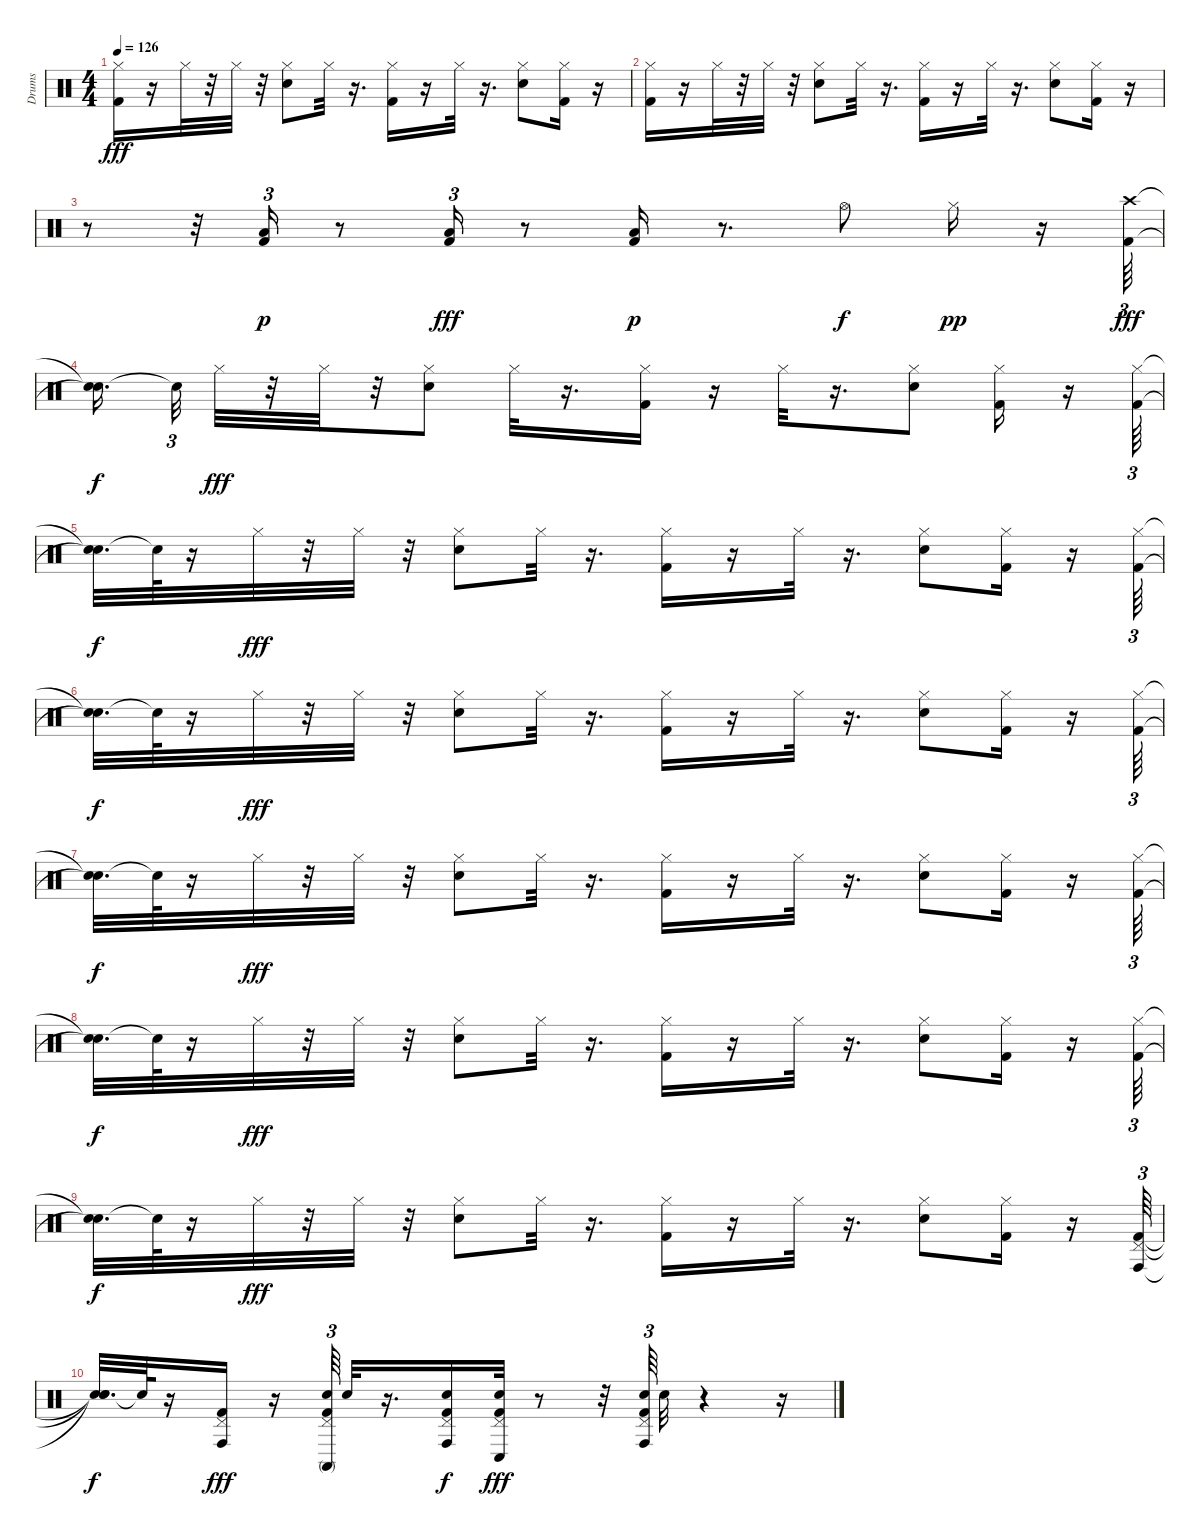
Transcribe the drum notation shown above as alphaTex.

\track ("Drums" "Drums") {instrument percussion}
\staff {score}
\articulation defaults
\ts (4 4)
\tempo 126
\clef neutral
\ks c
("Hi-Hat (closed)" "Kick (hit) 2").16{dy fff} r.16 "Hi-Hat (closed)".32 r.32 "Hi-Hat (closed)".32 r.32 ("Snare (hit) 2" "Hi-Hat (closed)").8 "Hi-Hat (closed)".32 r.16{d} ("Hi-Hat (closed)" "Kick (hit) 2").16 r.16 "Hi-Hat (closed)".32 r.16{d} ("Hi-Hat (closed)" "Snare (hit) 2").8 ("Hi-Hat (closed)" "Kick (hit) 2").16 r.16 |
("Hi-Hat (closed)" "Kick (hit) 2").16 r.16 "Hi-Hat (closed)".32 r.32 "Hi-Hat (closed)".32 r.32 ("Snare (hit) 2" "Hi-Hat (closed)").8 "Hi-Hat (closed)".32 r.16{d} ("Kick (hit) 2" "Hi-Hat (closed)").16 r.16 "Hi-Hat (closed)".32 r.16{d} ("Hi-Hat (closed)" "Snare (hit) 2").8 ("Hi-Hat (closed)" "Kick (hit) 2").16 r.16 |
r.8 r.32 ("Kick (hit) 2" "Low Floor Tom (hit)").16{tu (3 2) dy p} r.8 ("Low Floor Tom (hit)" "Kick (hit) 2").16{tu (3 2) dy fff} r.8 ("Kick (hit) 2" "Low Floor Tom (hit)").16{dy p} r.8{d} "Hi-Hat (open)".8{dy f} "Hi-Hat (closed)".16{dy pp} r.16 ("Crash high (hit)" "Kick (hit) 2").64{tu (3 2) dy fff} |
("Snare (hit)"{t} "Snare (hit)"{t}).16{d dy f} "Snare (hit)"{t}.32{tu (3 2)} "Hi-Hat (closed)".32{dy fff} r.32 "Hi-Hat (closed)".32 r.32 ("Hi-Hat (closed)" "Snare (hit) 2").8 "Hi-Hat (closed)".32 r.16{d} ("Hi-Hat (closed)" "Kick (hit) 2").16 r.16 "Hi-Hat (closed)".32 r.16{d} ("Snare (hit) 2" "Hi-Hat (closed)").8 ("Kick (hit) 2" "Hi-Hat (closed)").16 r.16 ("Hi-Hat (closed)" "Kick (hit) 2").64{tu (3 2)} |
("Snare (hit)"{t} "Snare (hit)"{t}).32{d dy f} "Snare (hit)"{t}.64 r.16 "Hi-Hat (closed)".32{dy fff} r.32 "Hi-Hat (closed)".32 r.32 ("Hi-Hat (closed)" "Snare (hit) 2").8 "Hi-Hat (closed)".32 r.16{d} ("Hi-Hat (closed)" "Kick (hit) 2").16 r.16 "Hi-Hat (closed)".32 r.16{d} ("Hi-Hat (closed)" "Snare (hit) 2").8 ("Hi-Hat (closed)" "Kick (hit) 2").16 r.16 ("Kick (hit) 2" "Hi-Hat (closed)").64{tu (3 2)} |
("Snare (hit)"{t} "Snare (hit)"{t}).32{d dy f} "Snare (hit)"{t}.64 r.16 "Hi-Hat (closed)".32{dy fff} r.32 "Hi-Hat (closed)".32 r.32 ("Snare (hit) 2" "Hi-Hat (closed)").8 "Hi-Hat (closed)".32 r.16{d} ("Hi-Hat (closed)" "Kick (hit) 2").16 r.16 "Hi-Hat (closed)".32 r.16{d} ("Snare (hit) 2" "Hi-Hat (closed)").8 ("Kick (hit) 2" "Hi-Hat (closed)").16 r.16 ("Kick (hit) 2" "Hi-Hat (closed)").64{tu (3 2)} |
("Snare (hit)"{t} "Snare (hit)"{t}).32{d dy f} "Snare (hit)"{t}.64 r.16 "Hi-Hat (closed)".32{dy fff} r.32 "Hi-Hat (closed)".32 r.32 ("Hi-Hat (closed)" "Snare (hit) 2").8 "Hi-Hat (closed)".32 r.16{d} ("Hi-Hat (closed)" "Kick (hit) 2").16 r.16 "Hi-Hat (closed)".32 r.16{d} ("Snare (hit) 2" "Hi-Hat (closed)").8 ("Hi-Hat (closed)" "Kick (hit) 2").16 r.16 ("Kick (hit) 2" "Hi-Hat (closed)").64{tu (3 2)} |
("Snare (hit)"{t} "Snare (hit)"{t}).32{d dy f} "Snare (hit)"{t}.64 r.16 "Hi-Hat (closed)".32{dy fff} r.32 "Hi-Hat (closed)".32 r.32 ("Snare (hit) 2" "Hi-Hat (closed)").8 "Hi-Hat (closed)".32 r.16{d} ("Hi-Hat (closed)" "Kick (hit) 2").16 r.16 "Hi-Hat (closed)".32 r.16{d} ("Hi-Hat (closed)" "Snare (hit) 2").8 ("Hi-Hat (closed)" "Kick (hit) 2").16 r.16 ("Kick (hit) 2" "Hi-Hat (closed)").64{tu (3 2)} |
("Snare (hit)"{t} "Snare (hit)"{t}).32{d dy f} "Snare (hit)"{t}.64 r.16 "Hi-Hat (closed)".32{dy fff} r.32 "Hi-Hat (closed)".32 r.32 ("Hi-Hat (closed)" "Snare (hit) 2").8 "Hi-Hat (closed)".32 r.16{d} ("Hi-Hat (closed)" "Kick (hit) 2").16 r.16 "Hi-Hat (closed)".32 r.16{d} ("Hi-Hat (closed)" "Snare (hit) 2").8 ("Hi-Hat (closed)" "Kick (hit) 2").16 r.16 ("Kick (hit) 2" "Pedal Hi-Hat (hit)" "Conga high (hit)").64{tu (3 2)} |
("Snare (hit)"{t} "Snare (hit)"{t} "Snare (hit)"{t}).32{d dy f} "Snare (hit)"{t}.64 r.16 ("Kick (hit) 2" "Pedal Hi-Hat (hit)" "Conga high (hit)").16{dy fff} r.16 ("Conga high (mute)" "Kick (hit) 2" "Snare (hit) 2" "Pedal Hi-Hat (hit)").64{tu (3 2)} "Snare (hit) 2".32 r.16{d} ("Pedal Hi-Hat (hit)" "Kick (hit) 2" "Snare (hit) 2" "Conga high (hit)").16{dy f} ("Snare (hit) 2" "Kick (hit) 2" "Conga low (hit)" "Pedal Hi-Hat (hit)").32{dy fff} r.8 r.32 ("Conga high (hit)" "Snare (hit) 2" "Kick (hit) 2" "Pedal Hi-Hat (hit)").64{tu (3 2)} "Snare (hit) 2".32 r.4 r.16
